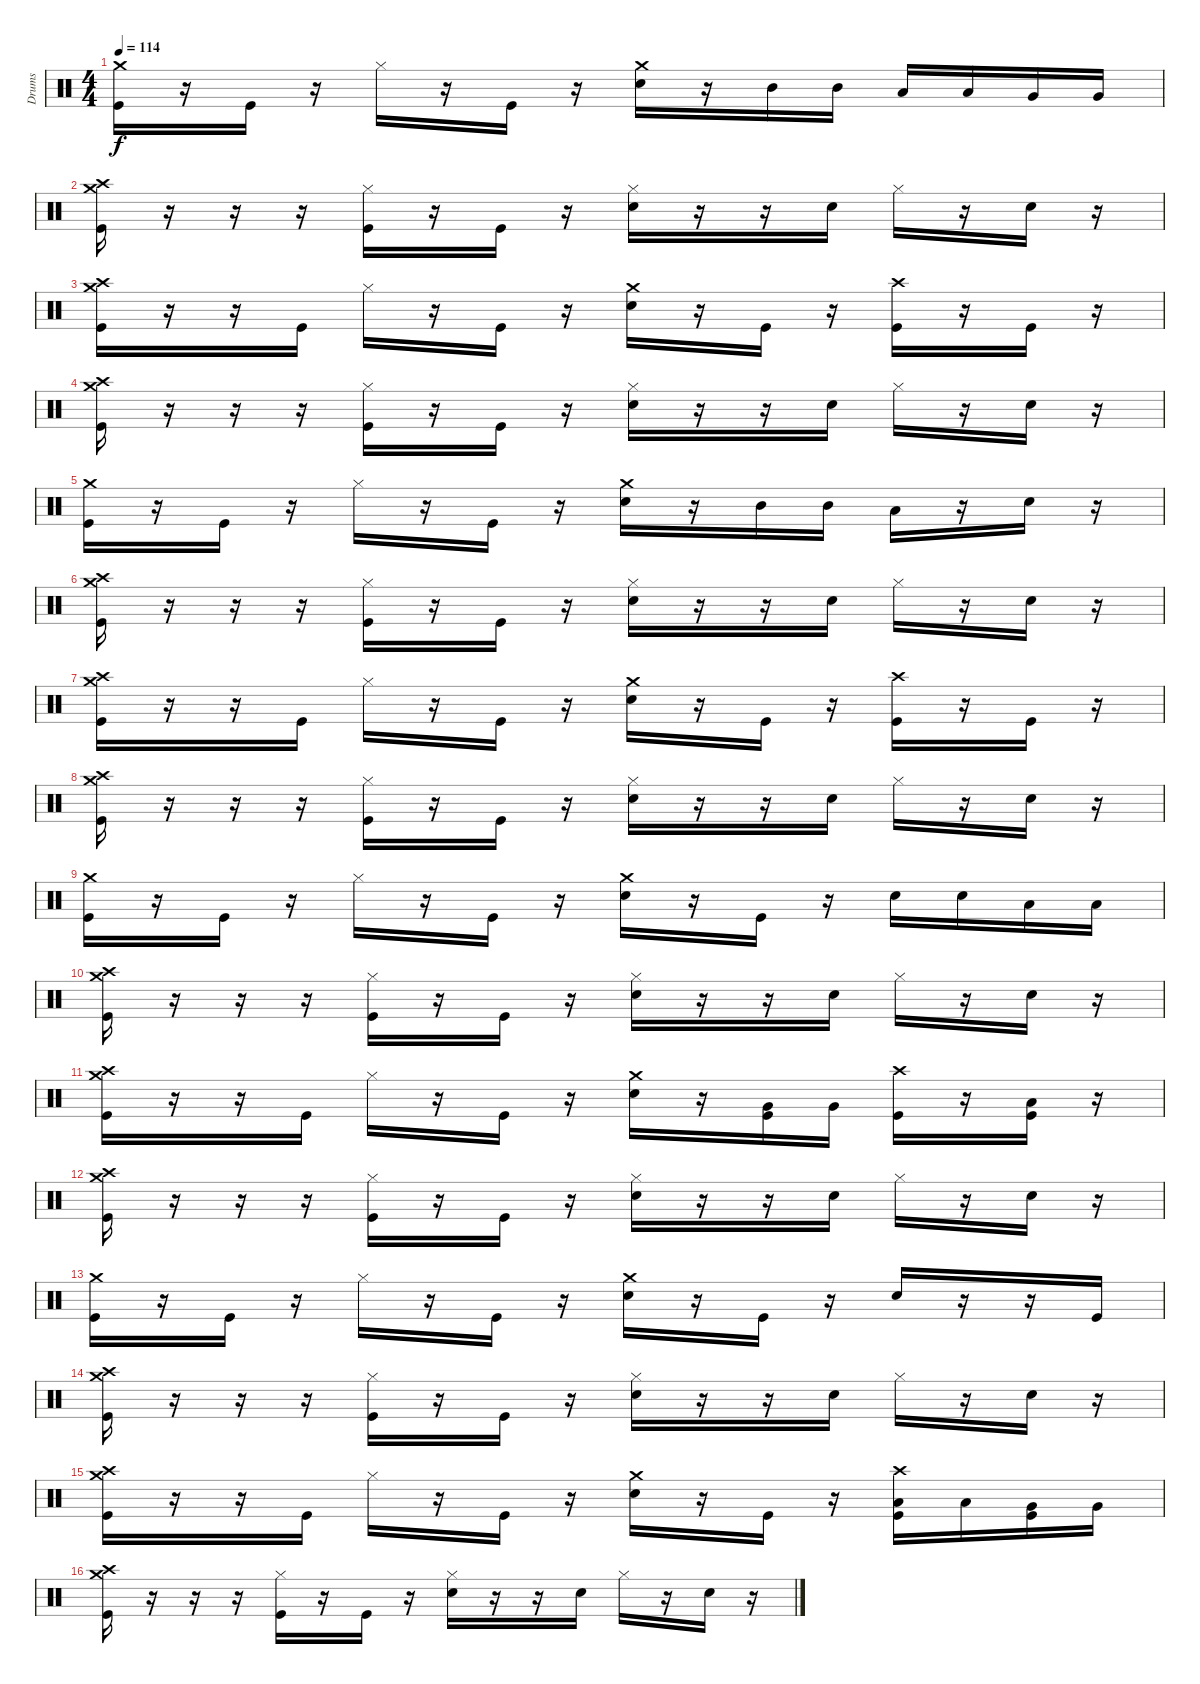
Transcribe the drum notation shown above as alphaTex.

\track ("Drums" "Drums") {instrument percussion}
\staff {score}
\articulation defaults
\ts (4 4)
\tempo 114
\clef neutral
\ks c
("Crash medium (hit)" "Kick (hit)").16{dy f} r.16 "Kick (hit)".16 r.16 "Hi-Hat (closed)".16 r.16 "Kick (hit)".16 r.16 ("Crash medium (hit)" "Snare (hit) 2").16 r.16 "Mid Tom (hit)".16 "Mid Tom (hit)".16 "Low Tom (hit)".16 "Low Tom (hit)".16 "Very Low Tom (hit)".16 "Very Low Tom (hit)".16 |
("Crash medium (hit)" "Crash high (hit)" "Kick (hit)").16 r.16 r.16 r.16 ("Hi-Hat (closed)" "Kick (hit)").16 r.16 "Kick (hit)".16 r.16 ("Hi-Hat (closed)" "Snare (hit) 2").16 r.16 r.16 "Snare (hit) 2".16 "Hi-Hat (closed)".16 r.16 "Snare (hit) 2".16 r.16 |
("Crash medium (hit)" "Crash high (hit)" "Kick (hit)").16 r.16 r.16 "Kick (hit)".16 "Hi-Hat (closed)".16 r.16 "Kick (hit)".16 r.16 ("Crash medium (hit)" "Snare (hit) 2").16 r.16 "Kick (hit)".16 r.16 ("Crash high (hit)" "Kick (hit)").16 r.16 "Kick (hit)".16 r.16 |
("Crash medium (hit)" "Crash high (hit)" "Kick (hit)").16 r.16 r.16 r.16 ("Hi-Hat (closed)" "Kick (hit)").16 r.16 "Kick (hit)".16 r.16 ("Hi-Hat (closed)" "Snare (hit) 2").16 r.16 r.16 "Snare (hit) 2".16 "Hi-Hat (closed)".16 r.16 "Snare (hit) 2".16 r.16 |
("Crash medium (hit)" "Kick (hit)").16 r.16 "Kick (hit)".16 r.16 "Hi-Hat (closed)".16 r.16 "Kick (hit)".16 r.16 ("Crash medium (hit)" "Snare (hit) 2").16 r.16 "Mid Tom (hit)".16 "Mid Tom (hit)".16 "Low Tom (hit)".16 r.16 "Snare (hit) 2".16 r.16 |
("Crash medium (hit)" "Crash high (hit)" "Kick (hit)").16 r.16 r.16 r.16 ("Hi-Hat (closed)" "Kick (hit)").16 r.16 "Kick (hit)".16 r.16 ("Hi-Hat (closed)" "Snare (hit) 2").16 r.16 r.16 "Snare (hit) 2".16 "Hi-Hat (closed)".16 r.16 "Snare (hit) 2".16 r.16 |
("Crash medium (hit)" "Crash high (hit)" "Kick (hit)").16 r.16 r.16 "Kick (hit)".16 "Hi-Hat (closed)".16 r.16 "Kick (hit)".16 r.16 ("Crash medium (hit)" "Snare (hit) 2").16 r.16 "Kick (hit)".16 r.16 ("Crash high (hit)" "Kick (hit)").16 r.16 "Kick (hit)".16 r.16 |
("Crash medium (hit)" "Crash high (hit)" "Kick (hit)").16 r.16 r.16 r.16 ("Hi-Hat (closed)" "Kick (hit)").16 r.16 "Kick (hit)".16 r.16 ("Hi-Hat (closed)" "Snare (hit) 2").16 r.16 r.16 "Snare (hit) 2".16 "Hi-Hat (closed)".16 r.16 "Snare (hit) 2".16 r.16 |
("Crash medium (hit)" "Kick (hit)").16 r.16 "Kick (hit)".16 r.16 "Hi-Hat (closed)".16 r.16 "Kick (hit)".16 r.16 ("Crash medium (hit)" "Snare (hit) 2").16 r.16 "Kick (hit)".16 r.16 "Snare (hit) 2".16 "Snare (hit) 2".16 "Low Tom (hit)".16 "Low Tom (hit)".16 |
("Crash medium (hit)" "Crash high (hit)" "Kick (hit)").16 r.16 r.16 r.16 ("Hi-Hat (closed)" "Kick (hit)").16 r.16 "Kick (hit)".16 r.16 ("Hi-Hat (closed)" "Snare (hit) 2").16 r.16 r.16 "Snare (hit) 2".16 "Hi-Hat (closed)".16 r.16 "Snare (hit) 2".16 r.16 |
("Crash medium (hit)" "Crash high (hit)" "Kick (hit)").16 r.16 r.16 "Kick (hit)".16 "Hi-Hat (closed)".16 r.16 "Kick (hit)".16 r.16 ("Crash medium (hit)" "Snare (hit) 2").16 r.16 ("Very Low Tom (hit)" "Kick (hit)").16 "Very Low Tom (hit)".16 ("Crash high (hit)" "Kick (hit)").16 r.16 ("Low Tom (hit)" "Kick (hit)").16 r.16 |
("Crash medium (hit)" "Crash high (hit)" "Kick (hit)").16 r.16 r.16 r.16 ("Hi-Hat (closed)" "Kick (hit)").16 r.16 "Kick (hit)".16 r.16 ("Hi-Hat (closed)" "Snare (hit) 2").16 r.16 r.16 "Snare (hit) 2".16 "Hi-Hat (closed)".16 r.16 "Snare (hit) 2".16 r.16 |
("Crash medium (hit)" "Kick (hit)").16 r.16 "Kick (hit)".16 r.16 "Hi-Hat (closed)".16 r.16 "Kick (hit)".16 r.16 ("Crash medium (hit)" "Snare (hit) 2").16 r.16 "Kick (hit)".16 r.16 "Snare (hit) 2".16 r.16 r.16 "Kick (hit)".16 |
("Crash medium (hit)" "Crash high (hit)" "Kick (hit)").16 r.16 r.16 r.16 ("Hi-Hat (closed)" "Kick (hit)").16 r.16 "Kick (hit)".16 r.16 ("Hi-Hat (closed)" "Snare (hit) 2").16 r.16 r.16 "Snare (hit) 2".16 "Hi-Hat (closed)".16 r.16 "Snare (hit) 2".16 r.16 |
("Crash medium (hit)" "Crash high (hit)" "Kick (hit)").16 r.16 r.16 "Kick (hit)".16 "Hi-Hat (closed)".16 r.16 "Kick (hit)".16 r.16 ("Crash medium (hit)" "Snare (hit) 2").16 r.16 "Kick (hit)".16 r.16 ("Crash high (hit)" "Low Tom (hit)" "Kick (hit)").16 "Low Tom (hit)".16 ("Very Low Tom (hit)" "Kick (hit)").16 "Very Low Tom (hit)".16 |
("Crash medium (hit)" "Crash high (hit)" "Kick (hit)").16 r.16 r.16 r.16 ("Hi-Hat (closed)" "Kick (hit)").16 r.16 "Kick (hit)".16 r.16 ("Hi-Hat (closed)" "Snare (hit) 2").16 r.16 r.16 "Snare (hit) 2".16 "Hi-Hat (closed)".16 r.16 "Snare (hit) 2".16 r.16
